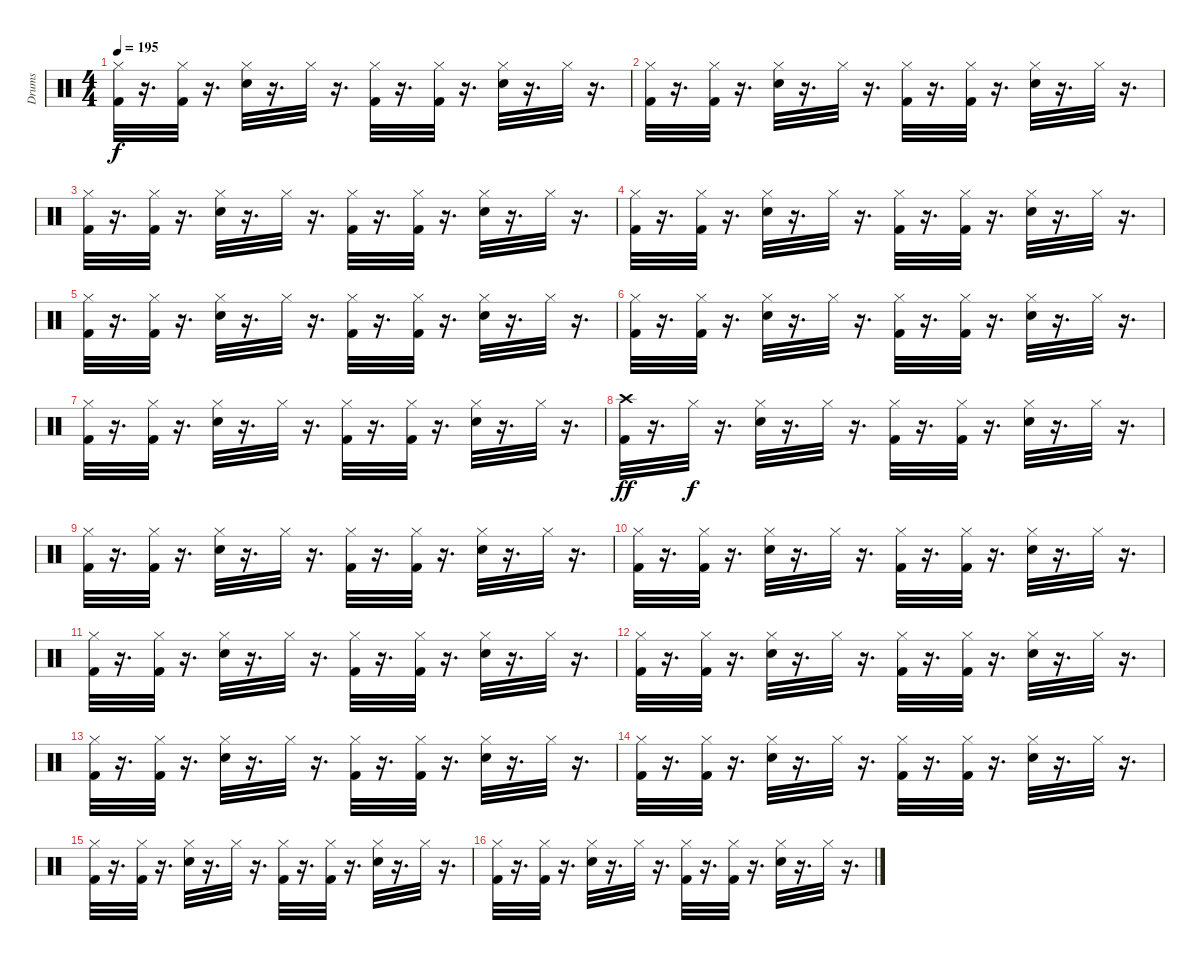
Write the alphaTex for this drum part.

\track ("Drums" "Drums") {instrument percussion}
\staff {score}
\articulation defaults
\ts (4 4)
\tempo 195
\clef neutral
\ks c
("Kick (hit) 2" "Hi-Hat (closed)").32{dy f} r.16{d} ("Kick (hit) 2" "Hi-Hat (closed)").32 r.16{d} ("Snare (hit) 2" "Hi-Hat (closed)").32 r.16{d} "Hi-Hat (closed)".32 r.16{d} ("Kick (hit) 2" "Hi-Hat (closed)").32 r.16{d} ("Kick (hit) 2" "Hi-Hat (closed)").32 r.16{d} ("Snare (hit) 2" "Hi-Hat (closed)").32 r.16{d} "Hi-Hat (closed)".32 r.16{d} |
("Kick (hit) 2" "Hi-Hat (closed)").32 r.16{d} ("Kick (hit) 2" "Hi-Hat (closed)").32 r.16{d} ("Snare (hit) 2" "Hi-Hat (closed)").32 r.16{d} "Hi-Hat (closed)".32 r.16{d} ("Kick (hit) 2" "Hi-Hat (closed)").32 r.16{d} ("Kick (hit) 2" "Hi-Hat (closed)").32 r.16{d} ("Snare (hit) 2" "Hi-Hat (closed)").32 r.16{d} "Hi-Hat (closed)".32 r.16{d} |
("Kick (hit) 2" "Hi-Hat (closed)").32 r.16{d} ("Kick (hit) 2" "Hi-Hat (closed)").32 r.16{d} ("Snare (hit) 2" "Hi-Hat (closed)").32 r.16{d} "Hi-Hat (closed)".32 r.16{d} ("Kick (hit) 2" "Hi-Hat (closed)").32 r.16{d} ("Hi-Hat (closed)" "Kick (hit) 2").32 r.16{d} ("Snare (hit) 2" "Hi-Hat (closed)").32 r.16{d} "Hi-Hat (closed)".32 r.16{d} |
("Kick (hit) 2" "Hi-Hat (closed)").32 r.16{d} ("Kick (hit) 2" "Hi-Hat (closed)").32 r.16{d} ("Snare (hit) 2" "Hi-Hat (closed)").32 r.16{d} "Hi-Hat (closed)".32 r.16{d} ("Kick (hit) 2" "Hi-Hat (closed)").32 r.16{d} ("Kick (hit) 2" "Hi-Hat (closed)").32 r.16{d} ("Snare (hit) 2" "Hi-Hat (closed)").32 r.16{d} "Hi-Hat (closed)".32 r.16{d} |
("Kick (hit) 2" "Hi-Hat (closed)").32 r.16{d} ("Kick (hit) 2" "Hi-Hat (closed)").32 r.16{d} ("Snare (hit) 2" "Hi-Hat (closed)").32 r.16{d} "Hi-Hat (closed)".32 r.16{d} ("Kick (hit) 2" "Hi-Hat (closed)").32 r.16{d} ("Kick (hit) 2" "Hi-Hat (closed)").32 r.16{d} ("Snare (hit) 2" "Hi-Hat (closed)").32 r.16{d} "Hi-Hat (closed)".32 r.16{d} |
("Kick (hit) 2" "Hi-Hat (closed)").32 r.16{d} ("Kick (hit) 2" "Hi-Hat (closed)").32 r.16{d} ("Snare (hit) 2" "Hi-Hat (closed)").32 r.16{d} "Hi-Hat (closed)".32 r.16{d} ("Kick (hit) 2" "Hi-Hat (closed)").32 r.16{d} ("Kick (hit) 2" "Hi-Hat (closed)").32 r.16{d} ("Snare (hit) 2" "Hi-Hat (closed)").32 r.16{d} "Hi-Hat (closed)".32 r.16{d} |
("Kick (hit) 2" "Hi-Hat (closed)").32 r.16{d} ("Kick (hit) 2" "Hi-Hat (closed)").32 r.16{d} ("Snare (hit) 2" "Hi-Hat (closed)").32 r.16{d} "Hi-Hat (closed)".32 r.16{d} ("Kick (hit) 2" "Hi-Hat (closed)").32 r.16{d} ("Kick (hit) 2" "Hi-Hat (closed)").32 r.16{d} ("Snare (hit) 2" "Hi-Hat (closed)").32 r.16{d} "Hi-Hat (closed)".32 r.16{d} |
("Kick (hit) 2" "Crash high (hit)").32{dy ff} r.16{d} "Hi-Hat (closed)".32{dy f} r.16{d} ("Snare (hit) 2" "Hi-Hat (closed)").32 r.16{d} "Hi-Hat (closed)".32 r.16{d} ("Kick (hit) 2" "Hi-Hat (closed)").32 r.16{d} ("Kick (hit) 2" "Hi-Hat (closed)").32 r.16{d} ("Snare (hit) 2" "Hi-Hat (closed)").32 r.16{d} "Hi-Hat (closed)".32 r.16{d} |
("Hi-Hat (closed)" "Kick (hit) 2").32 r.16{d} ("Hi-Hat (closed)" "Kick (hit) 2").32 r.16{d} ("Hi-Hat (closed)" "Snare (hit) 2").32 r.16{d} "Hi-Hat (closed)".32 r.16{d} ("Hi-Hat (closed)" "Kick (hit) 2").32 r.16{d} ("Hi-Hat (closed)" "Kick (hit) 2").32 r.16{d} ("Hi-Hat (closed)" "Snare (hit) 2").32 r.16{d} "Hi-Hat (closed)".32 r.16{d} |
("Hi-Hat (closed)" "Kick (hit) 2").32 r.16{d} ("Hi-Hat (closed)" "Kick (hit) 2").32 r.16{d} ("Hi-Hat (closed)" "Snare (hit) 2").32 r.16{d} "Hi-Hat (closed)".32 r.16{d} ("Hi-Hat (closed)" "Kick (hit) 2").32 r.16{d} ("Hi-Hat (closed)" "Kick (hit) 2").32 r.16{d} ("Hi-Hat (closed)" "Snare (hit) 2").32 r.16{d} "Hi-Hat (closed)".32 r.16{d} |
("Hi-Hat (closed)" "Kick (hit) 2").32 r.16{d} ("Hi-Hat (closed)" "Kick (hit) 2").32 r.16{d} ("Hi-Hat (closed)" "Snare (hit) 2").32 r.16{d} "Hi-Hat (closed)".32 r.16{d} ("Hi-Hat (closed)" "Kick (hit) 2").32 r.16{d} ("Hi-Hat (closed)" "Kick (hit) 2").32 r.16{d} ("Hi-Hat (closed)" "Snare (hit) 2").32 r.16{d} "Hi-Hat (closed)".32 r.16{d} |
("Hi-Hat (closed)" "Kick (hit) 2").32 r.16{d} ("Hi-Hat (closed)" "Kick (hit) 2").32 r.16{d} ("Hi-Hat (closed)" "Snare (hit) 2").32 r.16{d} "Hi-Hat (closed)".32 r.16{d} ("Hi-Hat (closed)" "Kick (hit) 2").32 r.16{d} ("Hi-Hat (closed)" "Kick (hit) 2").32 r.16{d} ("Hi-Hat (closed)" "Snare (hit) 2").32 r.16{d} "Hi-Hat (closed)".32 r.16{d} |
("Hi-Hat (closed)" "Kick (hit) 2").32 r.16{d} ("Hi-Hat (closed)" "Kick (hit) 2").32 r.16{d} ("Hi-Hat (closed)" "Snare (hit) 2").32 r.16{d} "Hi-Hat (closed)".32 r.16{d} ("Hi-Hat (closed)" "Kick (hit) 2").32 r.16{d} ("Hi-Hat (closed)" "Kick (hit) 2").32 r.16{d} ("Hi-Hat (closed)" "Snare (hit) 2").32 r.16{d} "Hi-Hat (closed)".32 r.16{d} |
("Hi-Hat (closed)" "Kick (hit) 2").32 r.16{d} ("Hi-Hat (closed)" "Kick (hit) 2").32 r.16{d} ("Hi-Hat (closed)" "Snare (hit) 2").32 r.16{d} "Hi-Hat (closed)".32 r.16{d} ("Hi-Hat (closed)" "Kick (hit) 2").32 r.16{d} ("Hi-Hat (closed)" "Kick (hit) 2").32 r.16{d} ("Hi-Hat (closed)" "Snare (hit) 2").32 r.16{d} "Hi-Hat (closed)".32 r.16{d} |
("Hi-Hat (closed)" "Kick (hit) 2").32 r.16{d} ("Hi-Hat (closed)" "Kick (hit) 2").32 r.16{d} ("Hi-Hat (closed)" "Snare (hit) 2").32 r.16{d} "Hi-Hat (closed)".32 r.16{d} ("Hi-Hat (closed)" "Kick (hit) 2").32 r.16{d} ("Hi-Hat (closed)" "Kick (hit) 2").32 r.16{d} ("Hi-Hat (closed)" "Snare (hit) 2").32 r.16{d} "Hi-Hat (closed)".32 r.16{d} |
("Hi-Hat (closed)" "Kick (hit) 2").32 r.16{d} ("Hi-Hat (closed)" "Kick (hit) 2").32 r.16{d} ("Hi-Hat (closed)" "Snare (hit) 2").32 r.16{d} "Hi-Hat (closed)".32 r.16{d} ("Hi-Hat (closed)" "Kick (hit) 2").32 r.16{d} ("Hi-Hat (closed)" "Kick (hit) 2").32 r.16{d} ("Hi-Hat (closed)" "Snare (hit) 2").32 r.16{d} "Hi-Hat (closed)".32 r.16{d}
